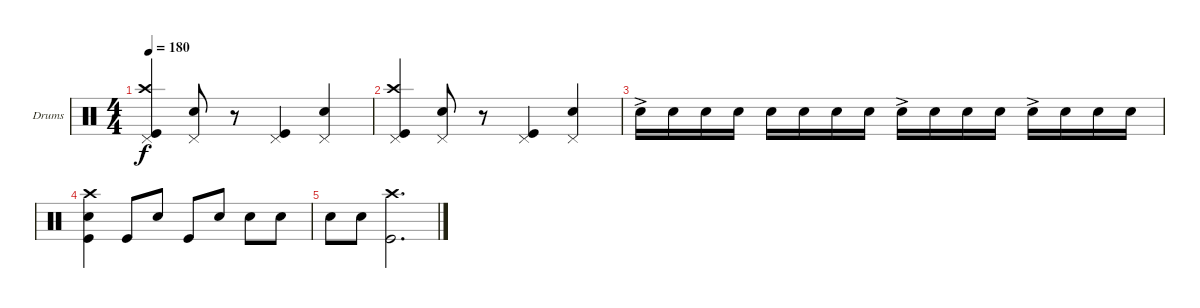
\defaultSystemsLayout 4
\bracketExtendMode groupsimilarinstruments
\firstSystemTrackNameOrientation horizontal
\otherSystemsTrackNameOrientation horizontal
\track ("Drumkit" "Drums") {multiBarRest instrument percussion}
\staff {score}
\articulation defaults
\ts (4 4)
\tempo 180
\clef neutral
\scale
0.333333
\ks c
("Pedal Hi-Hat (hit)" "Crash high (hit)" "Kick (hit)").4{dy f} ("Pedal Hi-Hat (hit)" "Snare (hit) 2").8 r.8 ("Pedal Hi-Hat (hit)" "Kick (hit)").4 ("Pedal Hi-Hat (hit)" "Snare (hit) 2").4 |
\scale
0.333333 ("Pedal Hi-Hat (hit)" "Crash high (hit)" "Kick (hit)").4 ("Pedal Hi-Hat (hit)" "Snare (hit) 2").8 r.8 ("Pedal Hi-Hat (hit)" "Kick (hit)").4 ("Pedal Hi-Hat (hit)" "Snare (hit) 2").4 |
"Snare (hit) 2"{ac}.16 "Snare (hit) 2".16 "Snare (hit) 2".16 "Snare (hit) 2".16 "Snare (hit) 2".16 "Snare (hit) 2".16 "Snare (hit) 2".16 "Snare (hit) 2".16 "Snare (hit) 2"{ac}.16 "Snare (hit) 2".16 "Snare (hit) 2".16 "Snare (hit) 2".16 "Snare (hit) 2"{ac}.16 "Snare (hit) 2".16 "Snare (hit) 2".16 "Snare (hit) 2".16 |
("Kick (hit)" "Snare (hit) 2" "Crash high (hit)").4 "Kick (hit)".8 "Snare (hit) 2".8 "Kick (hit)".8 "Snare (hit) 2".8 "Snare (hit) 2".8 "Snare (hit) 2".8 |
"Snare (hit) 2".8 "Snare (hit) 2".8 ("Crash high (hit)" "Kick (hit)").2{d}
